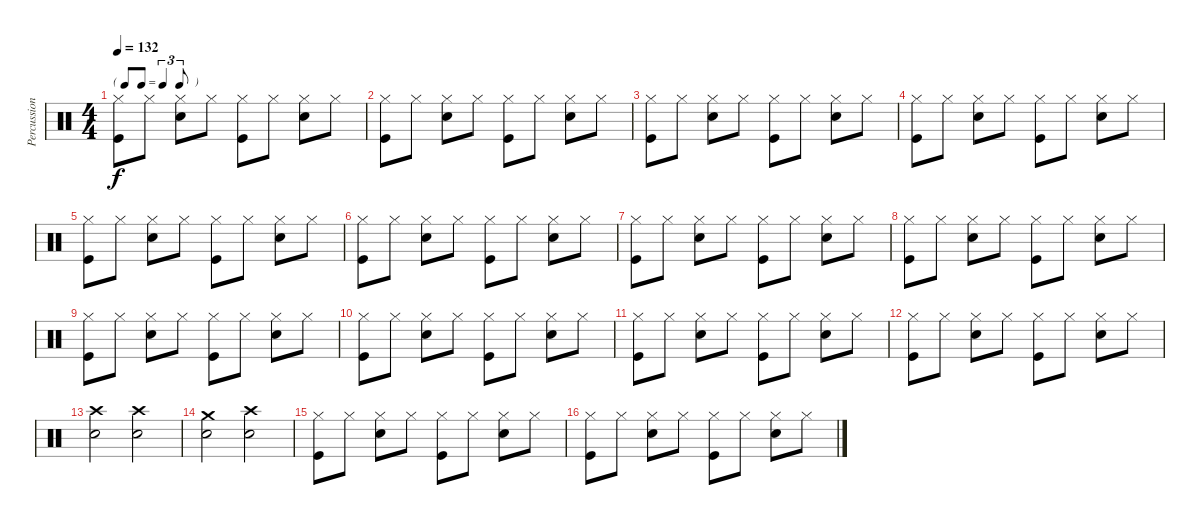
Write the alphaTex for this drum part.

\track ("Percussion" "Percussion") {instrument percussion}
\staff {score}
\articulation defaults
\ts (4 4)
\tf triplet8th
\tempo 132
\clef neutral
\ks c
("Hi-Hat (closed)" "Kick (hit)").8{dy f} "Hi-Hat (closed)".8 ("Hi-Hat (closed)" "Snare (hit) 2").8 "Hi-Hat (closed)".8 ("Hi-Hat (closed)" "Kick (hit)").8 "Hi-Hat (closed)".8 ("Hi-Hat (closed)" "Snare (hit) 2").8 "Hi-Hat (closed)".8 |
("Hi-Hat (closed)" "Kick (hit)").8 "Hi-Hat (closed)".8 ("Hi-Hat (closed)" "Snare (hit) 2").8 "Hi-Hat (closed)".8 ("Hi-Hat (closed)" "Kick (hit)").8 "Hi-Hat (closed)".8 ("Hi-Hat (closed)" "Snare (hit) 2").8 "Hi-Hat (closed)".8 |
("Hi-Hat (closed)" "Kick (hit)").8 "Hi-Hat (closed)".8 ("Hi-Hat (closed)" "Snare (hit) 2").8 "Hi-Hat (closed)".8 ("Hi-Hat (closed)" "Kick (hit)").8 "Hi-Hat (closed)".8 ("Hi-Hat (closed)" "Snare (hit) 2").8 "Hi-Hat (closed)".8 |
("Hi-Hat (closed)" "Kick (hit)").8 "Hi-Hat (closed)".8 ("Hi-Hat (closed)" "Snare (hit) 2").8 "Hi-Hat (closed)".8 ("Hi-Hat (closed)" "Kick (hit)").8 "Hi-Hat (closed)".8 ("Hi-Hat (closed)" "Snare (hit) 2").8 "Hi-Hat (closed)".8 |
("Hi-Hat (closed)" "Kick (hit)").8 "Hi-Hat (closed)".8 ("Hi-Hat (closed)" "Snare (hit) 2").8 "Hi-Hat (closed)".8 ("Hi-Hat (closed)" "Kick (hit)").8 "Hi-Hat (closed)".8 ("Hi-Hat (closed)" "Snare (hit) 2").8 "Hi-Hat (closed)".8 |
("Hi-Hat (closed)" "Kick (hit)").8 "Hi-Hat (closed)".8 ("Hi-Hat (closed)" "Snare (hit) 2").8 "Hi-Hat (closed)".8 ("Hi-Hat (closed)" "Kick (hit)").8 "Hi-Hat (closed)".8 ("Hi-Hat (closed)" "Snare (hit) 2").8 "Hi-Hat (closed)".8 |
("Hi-Hat (closed)" "Kick (hit)").8 "Hi-Hat (closed)".8 ("Hi-Hat (closed)" "Snare (hit) 2").8 "Hi-Hat (closed)".8 ("Hi-Hat (closed)" "Kick (hit)").8 "Hi-Hat (closed)".8 ("Hi-Hat (closed)" "Snare (hit) 2").8 "Hi-Hat (closed)".8 |
("Hi-Hat (closed)" "Kick (hit)").8 "Hi-Hat (closed)".8 ("Hi-Hat (closed)" "Snare (hit) 2").8 "Hi-Hat (closed)".8 ("Hi-Hat (closed)" "Kick (hit)").8 "Hi-Hat (closed)".8 ("Hi-Hat (closed)" "Snare (hit) 2").8 "Hi-Hat (closed)".8 |
("Hi-Hat (closed)" "Kick (hit)").8 "Hi-Hat (closed)".8 ("Hi-Hat (closed)" "Snare (hit) 2").8 "Hi-Hat (closed)".8 ("Hi-Hat (closed)" "Kick (hit)").8 "Hi-Hat (closed)".8 ("Hi-Hat (closed)" "Snare (hit) 2").8 "Hi-Hat (closed)".8 |
("Hi-Hat (closed)" "Kick (hit)").8 "Hi-Hat (closed)".8 ("Hi-Hat (closed)" "Snare (hit) 2").8 "Hi-Hat (closed)".8 ("Hi-Hat (closed)" "Kick (hit)").8 "Hi-Hat (closed)".8 ("Hi-Hat (closed)" "Snare (hit) 2").8 "Hi-Hat (closed)".8 |
("Hi-Hat (closed)" "Kick (hit)").8 "Hi-Hat (closed)".8 ("Hi-Hat (closed)" "Snare (hit) 2").8 "Hi-Hat (closed)".8 ("Hi-Hat (closed)" "Kick (hit)").8 "Hi-Hat (closed)".8 ("Hi-Hat (closed)" "Snare (hit) 2").8 "Hi-Hat (closed)".8 |
("Hi-Hat (closed)" "Kick (hit)").8 "Hi-Hat (closed)".8 ("Hi-Hat (closed)" "Snare (hit) 2").8 "Hi-Hat (closed)".8 ("Hi-Hat (closed)" "Kick (hit)").8 "Hi-Hat (closed)".8 ("Hi-Hat (closed)" "Snare (hit) 2").8 "Hi-Hat (closed)".8 |
("Crash high (hit)" "Snare (hit) 2").2 ("Crash high (hit)" "Snare (hit) 2").2 |
("Crash medium (hit)" "Snare (hit) 2").2 ("Crash high (hit)" "Snare (hit) 2").2 |
("Hi-Hat (closed)" "Kick (hit)").8 "Hi-Hat (closed)".8 ("Hi-Hat (closed)" "Snare (hit) 2").8 "Hi-Hat (closed)".8 ("Hi-Hat (closed)" "Kick (hit)").8 "Hi-Hat (closed)".8 ("Hi-Hat (closed)" "Snare (hit) 2").8 "Hi-Hat (closed)".8 |
("Hi-Hat (closed)" "Kick (hit)").8 "Hi-Hat (closed)".8 ("Hi-Hat (closed)" "Snare (hit) 2").8 "Hi-Hat (closed)".8 ("Hi-Hat (closed)" "Kick (hit)").8 "Hi-Hat (closed)".8 ("Hi-Hat (closed)" "Snare (hit) 2").8 "Hi-Hat (closed)".8
